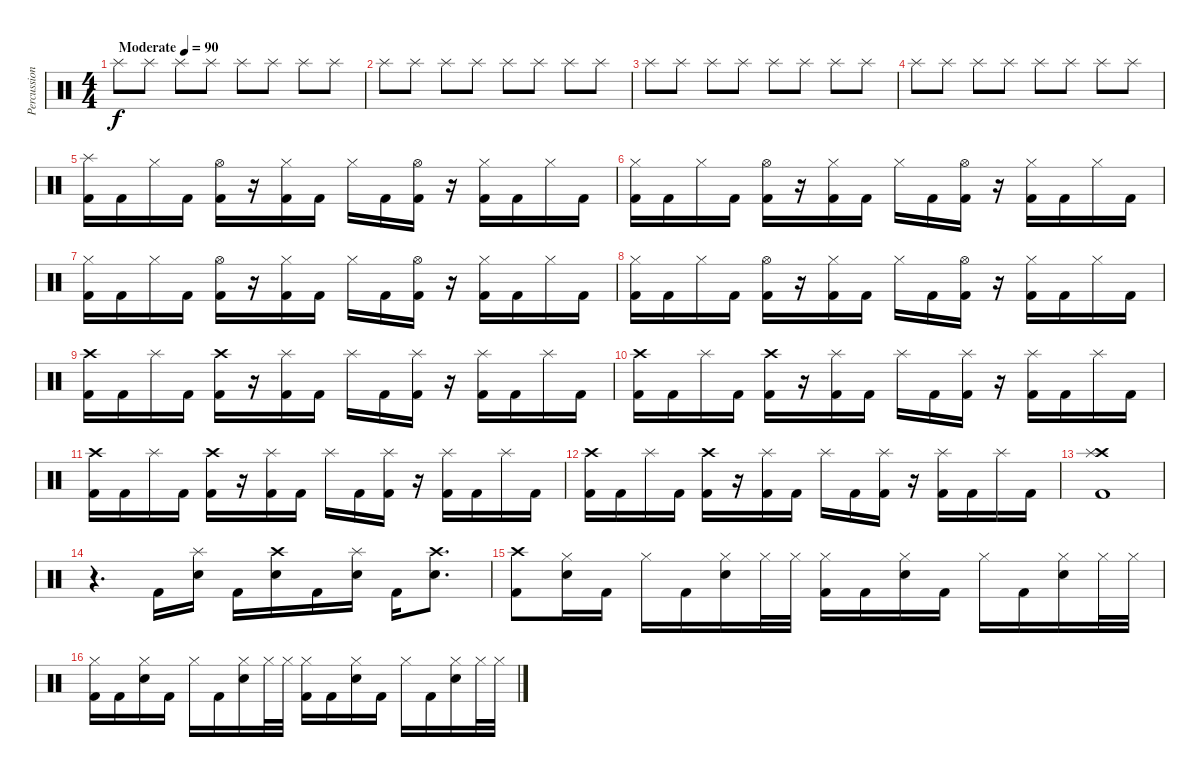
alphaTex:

\track ("Percussion" "Percussion") {instrument percussion}
\staff {score}
\articulation defaults
\ts (4 4)
\tempo (90 "Moderate")
\clef neutral
\ks c "Splash (hit)".8{dy f volume 6} "Splash (hit)".8 "Splash (hit)".8 "Splash (hit)".8 "Splash (hit)".8 "Splash (hit)".8 "Splash (hit)".8 "Splash (hit)".8
|
"Splash (hit)".8 "Splash (hit)".8 "Splash (hit)".8 "Splash (hit)".8 "Splash (hit)".8 "Splash (hit)".8 "Splash (hit)".8 "Splash (hit)".8 |
"Splash (hit)".8{volume 13} "Splash (hit)".8 "Splash (hit)".8 "Splash (hit)".8 "Splash (hit)".8 "Splash (hit)".8 "Splash (hit)".8 "Splash (hit)".8 |
"Splash (hit)".8 "Splash (hit)".8 "Splash (hit)".8 "Splash (hit)".8 "Splash (hit)".8{volume 13} "Splash (hit)".8 "Splash (hit)".8 "Splash (hit)".8 |
("Splash (hit)" "Kick (hit) 2").16 "Kick (hit) 2".16 "Hi-Hat (closed)".16 "Kick (hit) 2".16 ("Hi-Hat (open)" "Kick (hit) 2").16 r.16 ("Hi-Hat (closed)" "Kick (hit) 2").16 "Kick (hit) 2".16 "Hi-Hat (closed)".16 "Kick (hit) 2".16 ("Hi-Hat (open)" "Kick (hit) 2").16 r.16 ("Hi-Hat (closed)" "Kick (hit) 2").16 "Kick (hit) 2".16 "Hi-Hat (closed)".16 "Kick (hit) 2".16 |
("Hi-Hat (closed)" "Kick (hit) 2").16 "Kick (hit) 2".16 "Hi-Hat (closed)".16 "Kick (hit) 2".16 ("Hi-Hat (open)" "Kick (hit) 2").16 r.16 ("Hi-Hat (closed)" "Kick (hit) 2").16 "Kick (hit) 2".16 "Hi-Hat (closed)".16 "Kick (hit) 2".16 ("Hi-Hat (open)" "Kick (hit) 2").16 r.16 ("Hi-Hat (closed)" "Kick (hit) 2").16 "Kick (hit) 2".16 "Hi-Hat (closed)".16 "Kick (hit) 2".16 |
("Hi-Hat (closed)" "Kick (hit) 2").16 "Kick (hit) 2".16 "Hi-Hat (closed)".16 "Kick (hit) 2".16 ("Hi-Hat (open)" "Kick (hit) 2").16 r.16 ("Hi-Hat (closed)" "Kick (hit) 2").16 "Kick (hit) 2".16 "Hi-Hat (closed)".16 "Kick (hit) 2".16 ("Hi-Hat (open)" "Kick (hit) 2").16 r.16 ("Hi-Hat (closed)" "Kick (hit) 2").16 "Kick (hit) 2".16 "Hi-Hat (closed)".16 "Kick (hit) 2".16 |
("Hi-Hat (closed)" "Kick (hit) 2").16 "Kick (hit) 2".16 "Hi-Hat (closed)".16 "Kick (hit) 2".16 ("Hi-Hat (open)" "Kick (hit) 2").16 r.16 ("Hi-Hat (closed)" "Kick (hit) 2").16 "Kick (hit) 2".16 "Hi-Hat (closed)".16 "Kick (hit) 2".16 ("Hi-Hat (open)" "Kick (hit) 2").16 r.16 ("Hi-Hat (closed)" "Kick (hit) 2").16 "Kick (hit) 2".16 "Hi-Hat (closed)".16 "Kick (hit) 2".16 |
("Crash high (hit)" "Kick (hit) 2").16 "Kick (hit) 2".16 "Splash (hit)".16 "Kick (hit) 2".16 ("Crash high (hit)" "Kick (hit) 2").16 r.16 ("Splash (hit)" "Kick (hit) 2").16 "Kick (hit) 2".16 "Splash (hit)".16 "Kick (hit) 2".16 ("Splash (hit)" "Kick (hit) 2").16 r.16 ("Splash (hit)" "Kick (hit) 2").16 "Kick (hit) 2".16 "Splash (hit)".16 "Kick (hit) 2".16 |
("Crash high (hit)" "Kick (hit) 2").16 "Kick (hit) 2".16 "Splash (hit)".16 "Kick (hit) 2".16 ("Crash high (hit)" "Kick (hit) 2").16 r.16 ("Splash (hit)" "Kick (hit) 2").16 "Kick (hit) 2".16 "Splash (hit)".16 "Kick (hit) 2".16 ("Splash (hit)" "Kick (hit) 2").16 r.16 ("Splash (hit)" "Kick (hit) 2").16 "Kick (hit) 2".16 "Splash (hit)".16 "Kick (hit) 2".16 |
("Crash high (hit)" "Kick (hit) 2").16 "Kick (hit) 2".16 "Splash (hit)".16 "Kick (hit) 2".16 ("Crash high (hit)" "Kick (hit) 2").16 r.16 ("Splash (hit)" "Kick (hit) 2").16 "Kick (hit) 2".16 "Splash (hit)".16 "Kick (hit) 2".16 ("Splash (hit)" "Kick (hit) 2").16 r.16 ("Splash (hit)" "Kick (hit) 2").16 "Kick (hit) 2".16 "Splash (hit)".16 "Kick (hit) 2".16 |
("Crash high (hit)" "Kick (hit) 2").16 "Kick (hit) 2".16 "Splash (hit)".16 "Kick (hit) 2".16 ("Crash high (hit)" "Kick (hit) 2").16 r.16 ("Splash (hit)" "Kick (hit) 2").16 "Kick (hit) 2".16 "Splash (hit)".16 "Kick (hit) 2".16 ("Splash (hit)" "Kick (hit) 2").16 r.16 ("Splash (hit)" "Kick (hit) 2").16 "Kick (hit) 2".16 "Splash (hit)".16 "Kick (hit) 2".16 |
("Crash high (hit)" "Splash (hit)" "Kick (hit) 2").1 |
r.4{d} "Kick (hit) 2".16 ("Splash (hit)" "Electric Snare (hit)").16 "Kick (hit) 2".16 ("Crash high (hit)" "Electric Snare (hit)").16 "Kick (hit) 2".16 ("Splash (hit)" "Electric Snare (hit)").16 "Kick (hit) 2".16 ("Crash high (hit)" "Electric Snare (hit)").8{d} |
("Crash high (hit)" "Kick (hit) 2").8 ("Hi-Hat (closed)" "Electric Snare (hit)").16 "Kick (hit) 2".16 "Hi-Hat (closed)".16 "Kick (hit) 2".16 ("Hi-Hat (closed)" "Electric Snare (hit)").16 "Hi-Hat (closed)".32 "Hi-Hat (closed)".32 ("Hi-Hat (closed)" "Kick (hit) 2").16 "Kick (hit) 2".16 ("Hi-Hat (closed)" "Electric Snare (hit)").16 "Kick (hit) 2".16 "Hi-Hat (closed)".16 "Kick (hit) 2".16 ("Hi-Hat (closed)" "Electric Snare (hit)").16 "Hi-Hat (closed)".32 "Hi-Hat (closed)".32 |
("Hi-Hat (closed)" "Kick (hit) 2").16 "Kick (hit) 2".16 ("Hi-Hat (closed)" "Electric Snare (hit)").16 "Kick (hit) 2".16 "Hi-Hat (closed)".16 "Kick (hit) 2".16 ("Hi-Hat (closed)" "Electric Snare (hit)").16 "Hi-Hat (closed)".32 "Hi-Hat (closed)".32 ("Hi-Hat (closed)" "Kick (hit) 2").16 "Kick (hit) 2".16 ("Hi-Hat (closed)" "Electric Snare (hit)").16 "Kick (hit) 2".16 "Hi-Hat (closed)".16 "Kick (hit) 2".16 ("Hi-Hat (closed)" "Electric Snare (hit)").16 "Hi-Hat (closed)".32 "Hi-Hat (closed)".32
